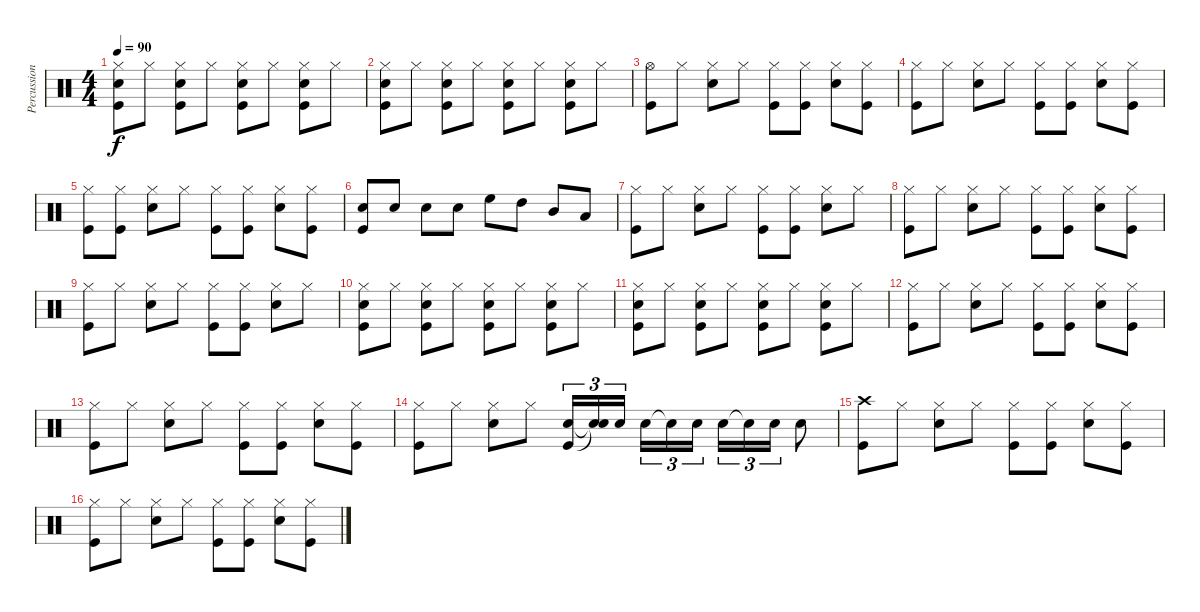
\track ("Percussion" "Percussion") {instrument percussion}
\staff {score}
\articulation defaults
\ts (4 4)
\tempo 90
\clef neutral
\ks c
("Hi-Hat (closed)" "Snare (hit) 2" "Kick (hit)").8{dy f} "Hi-Hat (closed)".8 ("Hi-Hat (closed)" "Snare (hit) 2" "Kick (hit)").8 "Hi-Hat (closed)".8 ("Hi-Hat (closed)" "Snare (hit) 2" "Kick (hit)").8 "Hi-Hat (closed)".8 ("Hi-Hat (closed)" "Snare (hit) 2" "Kick (hit)").8 "Hi-Hat (closed)".8 |
("Hi-Hat (closed)" "Snare (hit) 2" "Kick (hit)").8 "Hi-Hat (closed)".8 ("Hi-Hat (closed)" "Snare (hit) 2" "Kick (hit)").8 "Hi-Hat (closed)".8 ("Hi-Hat (closed)" "Snare (hit) 2" "Kick (hit)").8 "Hi-Hat (closed)".8 ("Hi-Hat (closed)" "Snare (hit) 2" "Kick (hit)").8 "Hi-Hat (closed)".8 |
("Hi-Hat (open)" "Kick (hit)").8 "Hi-Hat (closed)".8 ("Hi-Hat (closed)" "Snare (hit) 2").8 "Hi-Hat (closed)".8 ("Hi-Hat (closed)" "Kick (hit)").8 ("Hi-Hat (closed)" "Kick (hit)").8 ("Hi-Hat (closed)" "Snare (hit) 2").8 ("Hi-Hat (closed)" "Kick (hit)").8 |
("Hi-Hat (closed)" "Kick (hit)").8 "Hi-Hat (closed)".8 ("Hi-Hat (closed)" "Snare (hit) 2").8 "Hi-Hat (closed)".8 ("Hi-Hat (closed)" "Kick (hit)").8 ("Hi-Hat (closed)" "Kick (hit)").8 ("Hi-Hat (closed)" "Snare (hit) 2").8 ("Hi-Hat (closed)" "Kick (hit)").8 |
("Hi-Hat (closed)" "Kick (hit)").8 ("Hi-Hat (closed)" "Kick (hit)").8 ("Hi-Hat (closed)" "Snare (hit) 2").8 "Hi-Hat (closed)".8 ("Hi-Hat (closed)" "Kick (hit)").8 ("Hi-Hat (closed)" "Kick (hit)").8 ("Hi-Hat (closed)" "Snare (hit) 2").8 ("Hi-Hat (closed)" "Kick (hit)").8 |
("Snare (hit) 2" "Kick (hit)").8 "Snare (hit) 2".8 "Snare (hit) 2".8 "Snare (hit) 2".8 "High Floor Tom (hit)".8 "High Tom (hit)".8 "Mid Tom (hit)".8 "Low Tom (hit)".8 |
("Hi-Hat (closed)" "Kick (hit)").8 "Hi-Hat (closed)".8 ("Hi-Hat (closed)" "Snare (hit) 2").8 "Hi-Hat (closed)".8 ("Hi-Hat (closed)" "Kick (hit)").8 ("Hi-Hat (closed)" "Kick (hit)").8 ("Hi-Hat (closed)" "Snare (hit) 2").8 "Hi-Hat (closed)".8 |
("Hi-Hat (closed)" "Kick (hit)").8 "Hi-Hat (closed)".8 ("Hi-Hat (closed)" "Snare (hit) 2").8 "Hi-Hat (closed)".8 ("Hi-Hat (closed)" "Kick (hit)").8 ("Hi-Hat (closed)" "Kick (hit)").8 ("Hi-Hat (closed)" "Snare (hit) 2").8 ("Hi-Hat (closed)" "Kick (hit)").8 |
("Hi-Hat (closed)" "Kick (hit)").8 "Hi-Hat (closed)".8 ("Hi-Hat (closed)" "Snare (hit) 2").8 "Hi-Hat (closed)".8 ("Hi-Hat (closed)" "Kick (hit)").8 ("Hi-Hat (closed)" "Kick (hit)").8 ("Hi-Hat (closed)" "Snare (hit) 2").8 "Hi-Hat (closed)".8 |
("Hi-Hat (closed)" "Snare (hit) 2" "Kick (hit)").8 "Hi-Hat (closed)".8 ("Hi-Hat (closed)" "Snare (hit) 2" "Kick (hit)").8 "Hi-Hat (closed)".8 ("Hi-Hat (closed)" "Snare (hit) 2" "Kick (hit)").8 "Hi-Hat (closed)".8 ("Hi-Hat (closed)" "Snare (hit) 2" "Kick (hit)").8 "Hi-Hat (closed)".8 |
("Hi-Hat (closed)" "Snare (hit) 2" "Kick (hit)").8 "Hi-Hat (closed)".8 ("Hi-Hat (closed)" "Snare (hit) 2" "Kick (hit)").8 "Hi-Hat (closed)".8 ("Hi-Hat (closed)" "Snare (hit) 2" "Kick (hit)").8 "Hi-Hat (closed)".8 ("Hi-Hat (closed)" "Snare (hit) 2" "Kick (hit)").8 "Hi-Hat (closed)".8 |
("Hi-Hat (closed)" "Kick (hit)").8 "Hi-Hat (closed)".8 ("Hi-Hat (closed)" "Snare (hit) 2").8 "Hi-Hat (closed)".8 ("Hi-Hat (closed)" "Kick (hit)").8 ("Hi-Hat (closed)" "Kick (hit)").8 ("Hi-Hat (closed)" "Snare (hit) 2").8 ("Hi-Hat (closed)" "Kick (hit)").8 |
("Hi-Hat (closed)" "Kick (hit)").8 "Hi-Hat (closed)".8 ("Hi-Hat (closed)" "Snare (hit) 2").8 "Hi-Hat (closed)".8 ("Hi-Hat (closed)" "Kick (hit)").8 ("Hi-Hat (closed)" "Kick (hit)").8 ("Hi-Hat (closed)" "Snare (hit) 2").8 ("Hi-Hat (closed)" "Kick (hit)").8 |
("Hi-Hat (closed)" "Kick (hit)").8 "Hi-Hat (closed)".8 ("Hi-Hat (closed)" "Snare (hit) 2").8 "Hi-Hat (closed)".8 ("Snare (hit) 2" "Kick (hit)").16{tu (3 2)} ("Snare (hit)"{t} "Snare (hit)"{t}).16{tu (3 2)} "Snare (hit) 2".16{tu (3 2)} "Snare (hit) 2".16{tu (3 2)} "Snare (hit)"{t}.16{tu (3 2)} "Snare (hit) 2".16{tu (3 2)} "Snare (hit) 2".16{tu (3 2)} "Snare (hit)"{t}.16{tu (3 2)} "Snare (hit) 2".16{tu (3 2)} "Snare (hit) 2".8 |
("Crash high (hit)" "Kick (hit)").8 "Hi-Hat (closed)".8 ("Hi-Hat (closed)" "Snare (hit) 2").8 "Hi-Hat (closed)".8 ("Hi-Hat (closed)" "Kick (hit)").8 ("Hi-Hat (closed)" "Kick (hit)").8 ("Hi-Hat (closed)" "Snare (hit) 2").8 ("Hi-Hat (closed)" "Kick (hit)").8 |
("Hi-Hat (closed)" "Kick (hit)").8 "Hi-Hat (closed)".8 ("Hi-Hat (closed)" "Snare (hit) 2").8 "Hi-Hat (closed)".8 ("Hi-Hat (closed)" "Kick (hit)").8 ("Hi-Hat (closed)" "Kick (hit)").8 ("Hi-Hat (closed)" "Snare (hit) 2").8 ("Hi-Hat (closed)" "Kick (hit)").8
